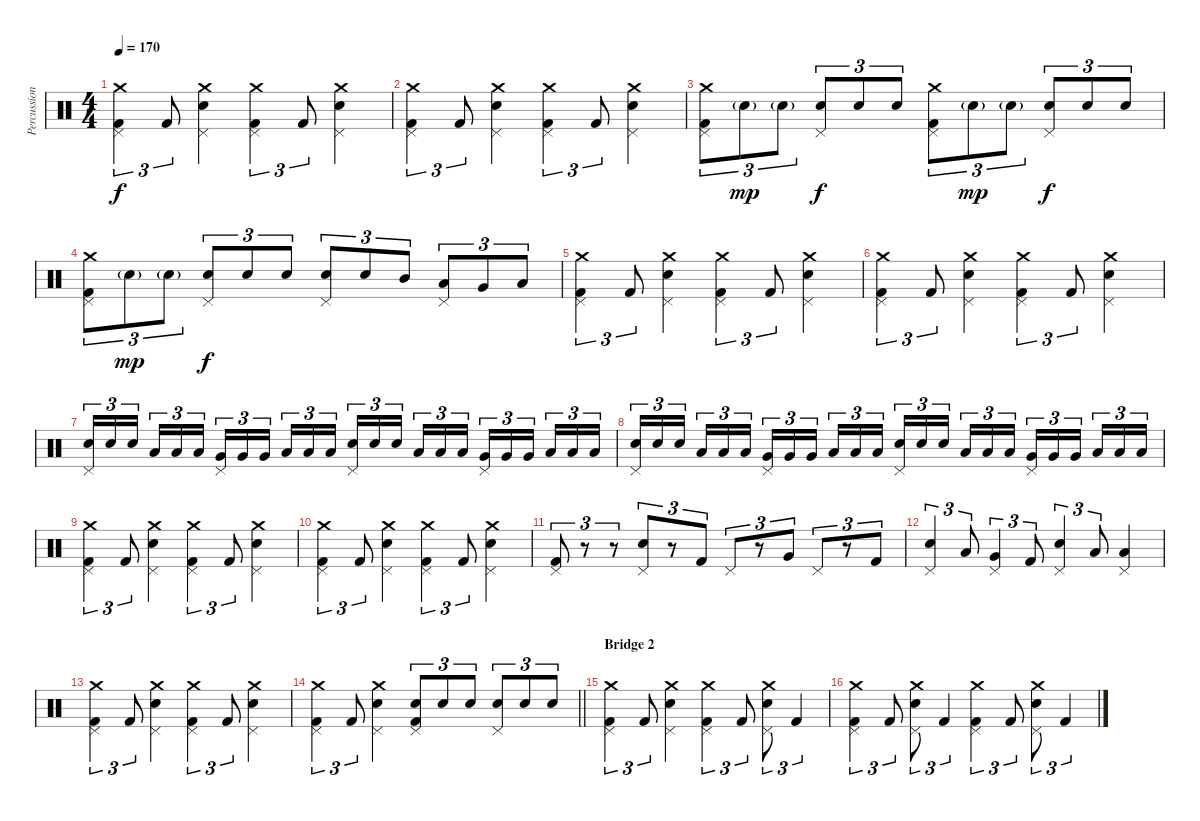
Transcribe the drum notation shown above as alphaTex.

\track ("Percussion" "Percussion") {instrument percussion}
\staff {score}
\articulation defaults
\ts (4 4)
\tempo 170
\clef neutral
\ks c
("Crash medium (hit)" "Pedal Hi-Hat (hit)" "Kick (hit) 2").4{tu (3 2) dy f} "Kick (hit) 2".8{tu (3 2)} ("Crash medium (hit)" "Pedal Hi-Hat (hit)" "Snare (hit) 2").4 ("Crash medium (hit)" "Pedal Hi-Hat (hit)" "Kick (hit) 2").4{tu (3 2)} "Kick (hit) 2".8{tu (3 2)} ("Crash medium (hit)" "Pedal Hi-Hat (hit)" "Snare (hit) 2").4 |
("Crash medium (hit)" "Pedal Hi-Hat (hit)" "Kick (hit) 2").4{tu (3 2)} "Kick (hit) 2".8{tu (3 2)} ("Crash medium (hit)" "Pedal Hi-Hat (hit)" "Snare (hit) 2").4 ("Crash medium (hit)" "Pedal Hi-Hat (hit)" "Kick (hit) 2").4{tu (3 2)} "Kick (hit) 2".8{tu (3 2)} ("Crash medium (hit)" "Pedal Hi-Hat (hit)" "Snare (hit) 2").4 |
("Crash medium (hit)" "Pedal Hi-Hat (hit)" "Kick (hit) 2").8{tu (3 2)} "Snare (hit) 2"{g}.8{tu (3 2) dy mp} "Snare (hit) 2"{g}.8{tu (3 2)} ("Pedal Hi-Hat (hit)" "Snare (hit) 2").8{tu (3 2) dy f} "Snare (hit) 2".8{tu (3 2)} "Snare (hit) 2".8{tu (3 2)} ("Crash medium (hit)" "Pedal Hi-Hat (hit)" "Kick (hit) 2").8{tu (3 2)} "Snare (hit) 2"{g}.8{tu (3 2) dy mp} "Snare (hit) 2"{g}.8{tu (3 2)} ("Pedal Hi-Hat (hit)" "Snare (hit) 2").8{tu (3 2) dy f} "Snare (hit) 2".8{tu (3 2)} "Snare (hit) 2".8{tu (3 2)} |
("Crash medium (hit)" "Pedal Hi-Hat (hit)" "Kick (hit) 2").8{tu (3 2)} "Snare (hit) 2"{g}.8{tu (3 2) dy mp} "Snare (hit) 2"{g}.8{tu (3 2)} ("Pedal Hi-Hat (hit)" "Snare (hit) 2").8{tu (3 2) dy f} "Snare (hit) 2".8{tu (3 2)} "Snare (hit) 2".8{tu (3 2)} ("Pedal Hi-Hat (hit)" "Snare (hit) 2").8{tu (3 2)} "Snare (hit) 2".8{tu (3 2)} "Mid Tom (hit)".8{tu (3 2)} ("Pedal Hi-Hat (hit)" "Low Tom (hit)").8{tu (3 2)} "Very Low Tom (hit)".8{tu (3 2)} "Low Floor Tom (hit)".8{tu (3 2)} |
("Crash medium (hit)" "Pedal Hi-Hat (hit)" "Kick (hit) 2").4{tu (3 2)} "Kick (hit) 2".8{tu (3 2)} ("Crash medium (hit)" "Pedal Hi-Hat (hit)" "Snare (hit) 2").4 ("Crash medium (hit)" "Pedal Hi-Hat (hit)" "Kick (hit) 2").4{tu (3 2)} "Kick (hit) 2".8{tu (3 2)} ("Crash medium (hit)" "Pedal Hi-Hat (hit)" "Snare (hit) 2").4 |
("Crash medium (hit)" "Pedal Hi-Hat (hit)" "Kick (hit) 2").4{tu (3 2)} "Kick (hit) 2".8{tu (3 2)} ("Crash medium (hit)" "Pedal Hi-Hat (hit)" "Snare (hit) 2").4 ("Crash medium (hit)" "Pedal Hi-Hat (hit)" "Kick (hit) 2").4{tu (3 2)} "Kick (hit) 2".8{tu (3 2)} ("Crash medium (hit)" "Pedal Hi-Hat (hit)" "Snare (hit) 2").4 |
("Pedal Hi-Hat (hit)" "Snare (hit) 2").16{tu (3 2)} "Snare (hit) 2".16{tu (3 2)} "Snare (hit) 2".16{tu (3 2) beam splitsecondary} "Low Tom (hit)".16{tu (3 2)} "Low Tom (hit)".16{tu (3 2)} "Low Tom (hit)".16{tu (3 2)} ("Pedal Hi-Hat (hit)" "Very Low Tom (hit)").16{tu (3 2)} "Very Low Tom (hit)".16{tu (3 2)} "Very Low Tom (hit)".16{tu (3 2) beam splitsecondary} "Low Floor Tom (hit)".16{tu (3 2)} "Low Floor Tom (hit)".16{tu (3 2)} "Low Floor Tom (hit)".16{tu (3 2)} ("Pedal Hi-Hat (hit)" "Snare (hit) 2").16{tu (3 2)} "Snare (hit) 2".16{tu (3 2)} "Snare (hit) 2".16{tu (3 2) beam splitsecondary} "Low Tom (hit)".16{tu (3 2)} "Low Tom (hit)".16{tu (3 2)} "Low Tom (hit)".16{tu (3 2)} ("Pedal Hi-Hat (hit)" "Very Low Tom (hit)").16{tu (3 2)} "Very Low Tom (hit)".16{tu (3 2)} "Very Low Tom (hit)".16{tu (3 2) beam splitsecondary} "Low Floor Tom (hit)".16{tu (3 2)} "Low Floor Tom (hit)".16{tu (3 2)} "Low Floor Tom (hit)".16{tu (3 2)} |
("Pedal Hi-Hat (hit)" "Snare (hit) 2").16{tu (3 2)} "Snare (hit) 2".16{tu (3 2)} "Snare (hit) 2".16{tu (3 2) beam splitsecondary} "Low Tom (hit)".16{tu (3 2)} "Low Tom (hit)".16{tu (3 2)} "Low Tom (hit)".16{tu (3 2)} ("Pedal Hi-Hat (hit)" "Very Low Tom (hit)").16{tu (3 2)} "Very Low Tom (hit)".16{tu (3 2)} "Very Low Tom (hit)".16{tu (3 2) beam splitsecondary} "Low Floor Tom (hit)".16{tu (3 2)} "Low Floor Tom (hit)".16{tu (3 2)} "Low Floor Tom (hit)".16{tu (3 2)} ("Pedal Hi-Hat (hit)" "Snare (hit) 2").16{tu (3 2)} "Snare (hit) 2".16{tu (3 2)} "Snare (hit) 2".16{tu (3 2) beam splitsecondary} "Low Tom (hit)".16{tu (3 2)} "Low Tom (hit)".16{tu (3 2)} "Low Tom (hit)".16{tu (3 2)} ("Pedal Hi-Hat (hit)" "Very Low Tom (hit)").16{tu (3 2)} "Very Low Tom (hit)".16{tu (3 2)} "Very Low Tom (hit)".16{tu (3 2) beam splitsecondary} "Low Floor Tom (hit)".16{tu (3 2)} "Low Floor Tom (hit)".16{tu (3 2)} "Low Floor Tom (hit)".16{tu (3 2)} |
("Crash medium (hit)" "Pedal Hi-Hat (hit)" "Kick (hit) 2").4{tu (3 2)} "Kick (hit) 2".8{tu (3 2)} ("Crash medium (hit)" "Pedal Hi-Hat (hit)" "Snare (hit) 2").4 ("Crash medium (hit)" "Pedal Hi-Hat (hit)" "Kick (hit) 2").4{tu (3 2)} "Kick (hit) 2".8{tu (3 2)} ("Crash medium (hit)" "Pedal Hi-Hat (hit)" "Snare (hit) 2").4 |
("Crash medium (hit)" "Pedal Hi-Hat (hit)" "Kick (hit) 2").4{tu (3 2)} "Kick (hit) 2".8{tu (3 2)} ("Crash medium (hit)" "Pedal Hi-Hat (hit)" "Snare (hit) 2").4 ("Crash medium (hit)" "Pedal Hi-Hat (hit)" "Kick (hit) 2").4{tu (3 2)} "Kick (hit) 2".8{tu (3 2)} ("Crash medium (hit)" "Pedal Hi-Hat (hit)" "Snare (hit) 2").4 |
("Pedal Hi-Hat (hit)" "Kick (hit) 2").8{tu (3 2)} r.8{tu (3 2)} r.8{tu (3 2)} ("Pedal Hi-Hat (hit)" "Snare (hit) 2").8{tu (3 2)} r.8{tu (3 2)} "Kick (hit) 2".8{tu (3 2)} "Pedal Hi-Hat (hit)".8{tu (3 2)} r.8{tu (3 2)} "Very Low Tom (hit)".8{tu (3 2)} "Pedal Hi-Hat (hit)".8{tu (3 2)} r.8{tu (3 2)} "Kick (hit) 2".8{tu (3 2)} |
("Pedal Hi-Hat (hit)" "Snare (hit) 2").4{tu (3 2)} "Low Tom (hit)".8{tu (3 2)} ("Pedal Hi-Hat (hit)" "Very Low Tom (hit)").4{tu (3 2)} "Kick (hit) 2".8{tu (3 2)} ("Pedal Hi-Hat (hit)" "Snare (hit) 2").4{tu (3 2)} "Low Tom (hit)".8{tu (3 2)} ("Pedal Hi-Hat (hit)" "Low Tom (hit)").4 |
("Crash medium (hit)" "Pedal Hi-Hat (hit)" "Kick (hit) 2").4{tu (3 2)} "Kick (hit) 2".8{tu (3 2)} ("Crash medium (hit)" "Pedal Hi-Hat (hit)" "Snare (hit) 2").4 ("Crash medium (hit)" "Pedal Hi-Hat (hit)" "Kick (hit) 2").4{tu (3 2)} "Kick (hit) 2".8{tu (3 2)} ("Crash medium (hit)" "Pedal Hi-Hat (hit)" "Snare (hit) 2").4 |
\barLineRight lightlight
("Crash medium (hit)" "Pedal Hi-Hat (hit)" "Kick (hit) 2").4{tu (3 2)} "Kick (hit) 2".8{tu (3 2)} ("Crash medium (hit)" "Pedal Hi-Hat (hit)" "Snare (hit) 2").4 ("Pedal Hi-Hat (hit)" "Snare (hit) 2" "Kick (hit) 2").8{tu (3 2)} "Snare (hit) 2".8{tu (3 2)} "Snare (hit) 2".8{tu (3 2)} ("Pedal Hi-Hat (hit)" "Snare (hit) 2").8{tu (3 2)} "Snare (hit) 2".8{tu (3 2)} "Snare (hit) 2".8{tu (3 2)} |
\section ("" "Bridge 2")
("Crash medium (hit)" "Pedal Hi-Hat (hit)" "Kick (hit) 2").4{tu (3 2)} "Kick (hit) 2".8{tu (3 2)} ("Crash medium (hit)" "Pedal Hi-Hat (hit)" "Snare (hit) 2").4 ("Crash medium (hit)" "Pedal Hi-Hat (hit)" "Kick (hit) 2").4{tu (3 2)} "Kick (hit) 2".8{tu (3 2)} ("Crash medium (hit)" "Pedal Hi-Hat (hit)" "Snare (hit) 2").8{tu (3 2)} "Kick (hit) 2".4{tu (3 2)} |
("Crash medium (hit)" "Pedal Hi-Hat (hit)" "Kick (hit) 2").4{tu (3 2)} "Kick (hit) 2".8{tu (3 2)} ("Crash medium (hit)" "Pedal Hi-Hat (hit)" "Snare (hit) 2").8{tu (3 2)} "Kick (hit) 2".4{tu (3 2)} ("Crash medium (hit)" "Pedal Hi-Hat (hit)" "Kick (hit) 2").4{tu (3 2)} "Kick (hit) 2".8{tu (3 2)} ("Crash medium (hit)" "Pedal Hi-Hat (hit)" "Snare (hit) 2").8{tu (3 2)} "Kick (hit) 2".4{tu (3 2)}
